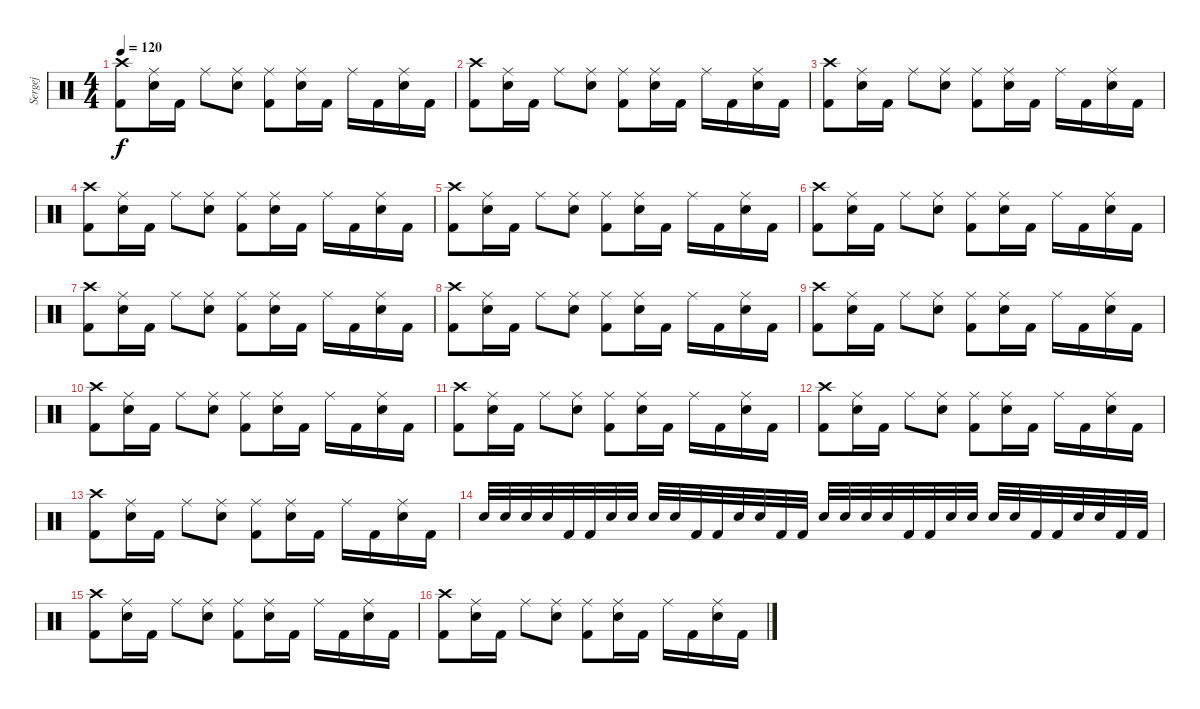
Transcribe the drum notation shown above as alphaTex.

\track ("Sergej" "Sergej") {instrument percussion}
\staff {score}
\articulation defaults
\ts (4 4)
\tempo 120
\clef neutral
\ks c
("Crash high (hit)" "Kick (hit) 2").8{dy f} ("Ride (middle)" "Snare (hit) 2").16 "Kick (hit) 2".16 "Ride (middle)".8 ("Ride (middle)" "Snare (hit) 2").8 ("Ride (middle)" "Kick (hit) 2").8 ("Ride (middle)" "Snare (hit) 2").16 "Kick (hit) 2".16 "Ride (middle)".16 "Kick (hit) 2".16 ("Ride (middle)" "Snare (hit) 2").16 "Kick (hit) 2".16 |
("Crash high (hit)" "Kick (hit) 2").8 ("Ride (middle)" "Snare (hit) 2").16 "Kick (hit) 2".16 "Ride (middle)".8 ("Ride (middle)" "Snare (hit) 2").8 ("Ride (middle)" "Kick (hit) 2").8 ("Ride (middle)" "Snare (hit) 2").16 "Kick (hit) 2".16 "Ride (middle)".16 "Kick (hit) 2".16 ("Ride (middle)" "Snare (hit) 2").16 "Kick (hit) 2".16 |
("Crash high (hit)" "Kick (hit) 2").8 ("Ride (middle)" "Snare (hit) 2").16 "Kick (hit) 2".16 "Ride (middle)".8 ("Ride (middle)" "Snare (hit) 2").8 ("Ride (middle)" "Kick (hit) 2").8 ("Ride (middle)" "Snare (hit) 2").16 "Kick (hit) 2".16 "Ride (middle)".16 "Kick (hit) 2".16 ("Ride (middle)" "Snare (hit) 2").16 "Kick (hit) 2".16 |
("Crash high (hit)" "Kick (hit) 2").8 ("Ride (middle)" "Snare (hit) 2").16 "Kick (hit) 2".16 "Ride (middle)".8 ("Ride (middle)" "Snare (hit) 2").8 ("Ride (middle)" "Kick (hit) 2").8 ("Ride (middle)" "Snare (hit) 2").16 "Kick (hit) 2".16 "Ride (middle)".16 "Kick (hit) 2".16 ("Ride (middle)" "Snare (hit) 2").16 "Kick (hit) 2".16 |
("Crash high (hit)" "Kick (hit) 2").8 ("Ride (middle)" "Snare (hit) 2").16 "Kick (hit) 2".16 "Ride (middle)".8 ("Ride (middle)" "Snare (hit) 2").8 ("Ride (middle)" "Kick (hit) 2").8 ("Ride (middle)" "Snare (hit) 2").16 "Kick (hit) 2".16 "Ride (middle)".16 "Kick (hit) 2".16 ("Ride (middle)" "Snare (hit) 2").16 "Kick (hit) 2".16 |
("Crash high (hit)" "Kick (hit) 2").8 ("Ride (middle)" "Snare (hit) 2").16 "Kick (hit) 2".16 "Ride (middle)".8 ("Ride (middle)" "Snare (hit) 2").8 ("Ride (middle)" "Kick (hit) 2").8 ("Ride (middle)" "Snare (hit) 2").16 "Kick (hit) 2".16 "Ride (middle)".16 "Kick (hit) 2".16 ("Ride (middle)" "Snare (hit) 2").16 "Kick (hit) 2".16 |
("Crash high (hit)" "Kick (hit) 2").8 ("Ride (middle)" "Snare (hit) 2").16 "Kick (hit) 2".16 "Ride (middle)".8 ("Ride (middle)" "Snare (hit) 2").8 ("Ride (middle)" "Kick (hit) 2").8 ("Ride (middle)" "Snare (hit) 2").16 "Kick (hit) 2".16 "Ride (middle)".16 "Kick (hit) 2".16 ("Ride (middle)" "Snare (hit) 2").16 "Kick (hit) 2".16 |
("Crash high (hit)" "Kick (hit) 2").8 ("Ride (middle)" "Snare (hit) 2").16 "Kick (hit) 2".16 "Ride (middle)".8 ("Ride (middle)" "Snare (hit) 2").8 ("Ride (middle)" "Kick (hit) 2").8 ("Ride (middle)" "Snare (hit) 2").16 "Kick (hit) 2".16 "Ride (middle)".16 "Kick (hit) 2".16 ("Ride (middle)" "Snare (hit) 2").16 "Kick (hit) 2".16 |
("Crash high (hit)" "Kick (hit) 2").8 ("Ride (middle)" "Snare (hit) 2").16 "Kick (hit) 2".16 "Ride (middle)".8 ("Ride (middle)" "Snare (hit) 2").8 ("Ride (middle)" "Kick (hit) 2").8 ("Ride (middle)" "Snare (hit) 2").16 "Kick (hit) 2".16 "Ride (middle)".16 "Kick (hit) 2".16 ("Ride (middle)" "Snare (hit) 2").16 "Kick (hit) 2".16 |
("Crash high (hit)" "Kick (hit) 2").8 ("Ride (middle)" "Snare (hit) 2").16 "Kick (hit) 2".16 "Ride (middle)".8 ("Ride (middle)" "Snare (hit) 2").8 ("Ride (middle)" "Kick (hit) 2").8 ("Ride (middle)" "Snare (hit) 2").16 "Kick (hit) 2".16 "Ride (middle)".16 "Kick (hit) 2".16 ("Ride (middle)" "Snare (hit) 2").16 "Kick (hit) 2".16 |
("Crash high (hit)" "Kick (hit) 2").8 ("Ride (middle)" "Snare (hit) 2").16 "Kick (hit) 2".16 "Ride (middle)".8 ("Ride (middle)" "Snare (hit) 2").8 ("Ride (middle)" "Kick (hit) 2").8 ("Ride (middle)" "Snare (hit) 2").16 "Kick (hit) 2".16 "Ride (middle)".16 "Kick (hit) 2".16 ("Ride (middle)" "Snare (hit) 2").16 "Kick (hit) 2".16 |
("Crash high (hit)" "Kick (hit) 2").8 ("Ride (middle)" "Snare (hit) 2").16 "Kick (hit) 2".16 "Ride (middle)".8 ("Ride (middle)" "Snare (hit) 2").8 ("Ride (middle)" "Kick (hit) 2").8 ("Ride (middle)" "Snare (hit) 2").16 "Kick (hit) 2".16 "Ride (middle)".16 "Kick (hit) 2".16 ("Ride (middle)" "Snare (hit) 2").16 "Kick (hit) 2".16 |
("Crash high (hit)" "Kick (hit) 2").8 ("Ride (middle)" "Snare (hit) 2").16 "Kick (hit) 2".16 "Ride (middle)".8 ("Ride (middle)" "Snare (hit) 2").8 ("Ride (middle)" "Kick (hit) 2").8 ("Ride (middle)" "Snare (hit) 2").16 "Kick (hit) 2".16 "Ride (middle)".16 "Kick (hit) 2".16 ("Ride (middle)" "Snare (hit) 2").16 "Kick (hit) 2".16 |
"Snare (hit) 2".32 "Snare (hit) 2".32 "Snare (hit) 2".32 "Snare (hit) 2".32 "Kick (hit) 2".32 "Kick (hit) 2".32 "Snare (hit) 2".32 "Snare (hit) 2".32 "Snare (hit) 2".32 "Snare (hit) 2".32 "Kick (hit) 2".32 "Kick (hit) 2".32 "Snare (hit) 2".32 "Snare (hit) 2".32 "Kick (hit) 2".32 "Kick (hit) 2".32 "Snare (hit) 2".32 "Snare (hit) 2".32 "Snare (hit) 2".32 "Snare (hit) 2".32 "Kick (hit) 2".32 "Kick (hit) 2".32 "Snare (hit) 2".32 "Snare (hit) 2".32 "Snare (hit) 2".32 "Snare (hit) 2".32 "Kick (hit) 2".32 "Kick (hit) 2".32 "Snare (hit) 2".32 "Snare (hit) 2".32 "Kick (hit) 2".32 "Kick (hit) 2".32 |
("Crash high (hit)" "Kick (hit) 2").8 ("Ride (middle)" "Snare (hit) 2").16 "Kick (hit) 2".16 "Ride (middle)".8 ("Ride (middle)" "Snare (hit) 2").8 ("Ride (middle)" "Kick (hit) 2").8 ("Ride (middle)" "Snare (hit) 2").16 "Kick (hit) 2".16 "Ride (middle)".16 "Kick (hit) 2".16 ("Ride (middle)" "Snare (hit) 2").16 "Kick (hit) 2".16 |
("Crash high (hit)" "Kick (hit) 2").8 ("Ride (middle)" "Snare (hit) 2").16 "Kick (hit) 2".16 "Ride (middle)".8 ("Ride (middle)" "Snare (hit) 2").8 ("Ride (middle)" "Kick (hit) 2").8 ("Ride (middle)" "Snare (hit) 2").16 "Kick (hit) 2".16 "Ride (middle)".16 "Kick (hit) 2".16 ("Ride (middle)" "Snare (hit) 2").16 "Kick (hit) 2".16
